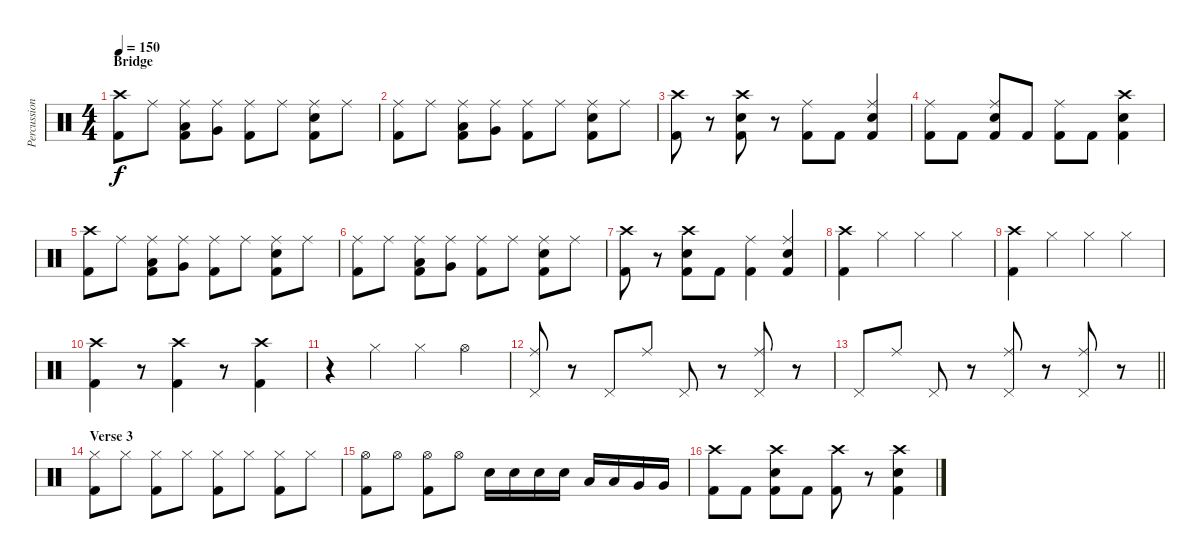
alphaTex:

\track ("Percussion" "Percussion") {instrument percussion}
\staff {score}
\articulation defaults
\ts (4 4)
\section ("" "Bridge")
\tempo 150
\clef neutral
\ks c
("Crash high (hit)" "Kick (hit) 2").8{dy f} "Ride (middle)".8 ("Ride (middle)" "Low Tom (hit)" "Kick (hit) 2").8 ("Ride (middle)" "Very Low Tom (hit)").8 ("Ride (middle)" "Kick (hit) 2").8 "Ride (middle)".8 ("Ride (middle)" "Electric Snare (hit)" "Kick (hit) 2").8 "Ride (middle)".8 |
("Ride (middle)" "Kick (hit) 2").8 "Ride (middle)".8 ("Ride (middle)" "Low Tom (hit)" "Kick (hit) 2").8 ("Ride (middle)" "Very Low Tom (hit)").8 ("Ride (middle)" "Kick (hit) 2").8 "Ride (middle)".8 ("Ride (middle)" "Electric Snare (hit)" "Kick (hit) 2").8 "Ride (middle)".8 |
("Crash high (hit)" "Kick (hit) 2").8 r.8 ("Crash high (hit)" "Electric Snare (hit)" "Kick (hit) 2").8 r.8 ("Ride (middle)" "Kick (hit) 2").8 "Kick (hit) 2".8 ("Ride (middle)" "Electric Snare (hit)" "Kick (hit) 2").4 |
("Ride (middle)" "Kick (hit) 2").8 "Kick (hit) 2".8 ("Ride (middle)" "Electric Snare (hit)" "Kick (hit) 2").8 "Kick (hit) 2".8 ("Ride (middle)" "Kick (hit) 2").8 "Kick (hit) 2".8 ("Crash high (hit)" "Electric Snare (hit)" "Kick (hit) 2").4 |
("Crash high (hit)" "Kick (hit) 2").8 "Ride (middle)".8 ("Ride (middle)" "Low Tom (hit)" "Kick (hit) 2").8 ("Ride (middle)" "Very Low Tom (hit)").8 ("Ride (middle)" "Kick (hit) 2").8 "Ride (middle)".8 ("Ride (middle)" "Electric Snare (hit)" "Kick (hit) 2").8 "Ride (middle)".8 |
("Ride (middle)" "Kick (hit) 2").8 "Ride (middle)".8 ("Ride (middle)" "Low Tom (hit)" "Kick (hit) 2").8 ("Ride (middle)" "Very Low Tom (hit)").8 ("Ride (middle)" "Kick (hit) 2").8 "Ride (middle)".8 ("Ride (middle)" "Electric Snare (hit)" "Kick (hit) 2").8 "Ride (middle)".8 |
("Crash high (hit)" "Kick (hit) 2").8 r.8 ("Crash high (hit)" "Electric Snare (hit)" "Kick (hit) 2").8 "Kick (hit) 2".8 ("Ride (middle)" "Kick (hit) 2").4 ("Ride (middle)" "Electric Snare (hit)" "Kick (hit) 2").4 |
("Crash high (hit)" "Kick (hit) 2").4 "Hi-Hat (closed)".4 "Hi-Hat (closed)".4 "Hi-Hat (closed)".4 |
("Crash high (hit)" "Kick (hit) 2").4 "Hi-Hat (closed)".4 "Hi-Hat (closed)".4 "Hi-Hat (closed)".4 |
("Crash high (hit)" "Kick (hit) 2").4 r.8 ("Crash high (hit)" "Kick (hit) 2").4 r.8 ("Crash high (hit)" "Kick (hit) 2").4 |
r.4 "Hi-Hat (closed)".4 "Hi-Hat (closed)".4 "Hi-Hat (open)".4 |
("Ride (middle)" "Pedal Hi-Hat (hit)").8 r.8 "Pedal Hi-Hat (hit)".8 "Ride (middle)".8 "Pedal Hi-Hat (hit)".8 r.8 ("Ride (middle)" "Pedal Hi-Hat (hit)").8 r.8 |
\barLineRight lightlight "Pedal Hi-Hat (hit)".8 "Ride (middle)".8 "Pedal Hi-Hat (hit)".8
r.8 ("Ride (middle)" "Pedal Hi-Hat (hit)").8 r.8 ("Ride (middle)" "Pedal Hi-Hat (hit)").8 r.8 |
\section ("" "Verse 3")
("Hi-Hat (closed)" "Kick (hit) 2").8 "Hi-Hat (closed)".8 ("Hi-Hat (closed)" "Kick (hit) 2").8 "Hi-Hat (closed)".8 ("Hi-Hat (closed)" "Kick (hit) 2").8 "Hi-Hat (closed)".8 ("Hi-Hat (closed)" "Kick (hit) 2").8 "Hi-Hat (closed)".8 |
("Hi-Hat (open)" "Kick (hit) 2").8 "Hi-Hat (open)".8 ("Hi-Hat (open)" "Kick (hit) 2").8 "Hi-Hat (open)".8 "Electric Snare (hit)".16 "Electric Snare (hit)".16 "Electric Snare (hit)".16 "Electric Snare (hit)".16 "Low Tom (hit)".16 "Low Tom (hit)".16 "Very Low Tom (hit)".16 "Very Low Tom (hit)".16 |
("Crash high (hit)" "Kick (hit) 2").8 "Kick (hit) 2".8 ("Crash high (hit)" "Electric Snare (hit)" "Kick (hit) 2").8 "Kick (hit) 2".8 ("Crash high (hit)" "Kick (hit) 2").8 r.8 ("Crash high (hit)" "Electric Snare (hit)" "Kick (hit) 2").4
